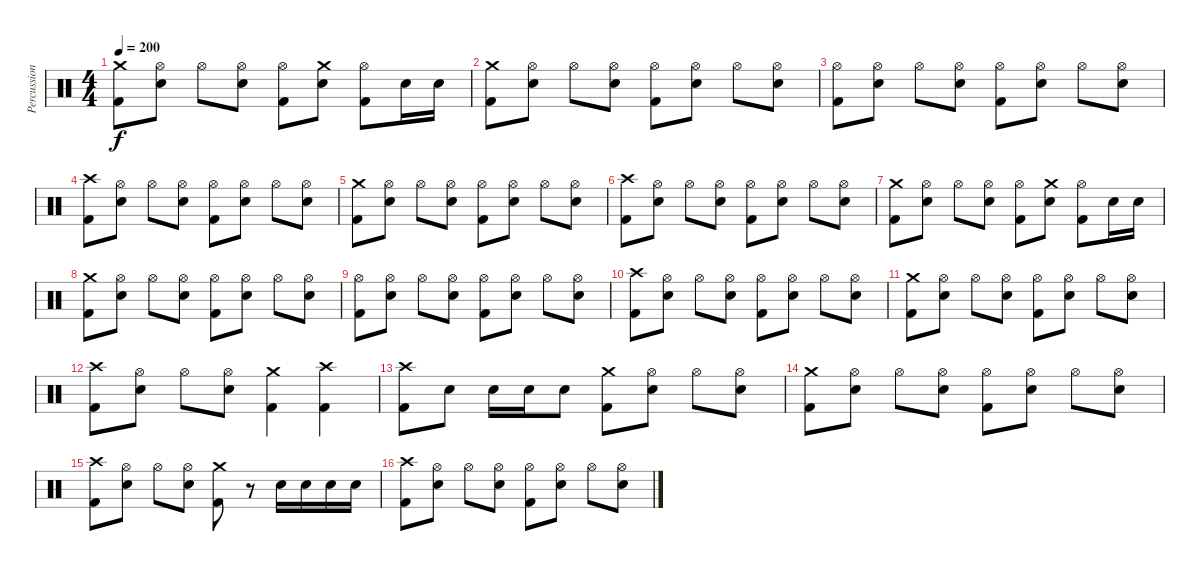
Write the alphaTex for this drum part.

\track ("Percussion" "Percussion") {instrument percussion}
\staff {score}
\articulation defaults
\ts (4 4)
\tempo 200
\clef neutral
\ks c
("Crash medium (hit)" "Kick (hit) 2").8{dy f} ("Hi-Hat (open)" "Electric Snare (hit)").8 "Hi-Hat (open)".8 ("Hi-Hat (open)" "Electric Snare (hit)").8 ("Hi-Hat (open)" "Kick (hit) 2").8 ("Crash medium (hit)" "Electric Snare (hit)").8 ("Hi-Hat (open)" "Kick (hit) 2").8 "Electric Snare (hit)".16 "Electric Snare (hit)".16 |
("Crash medium (hit)" "Kick (hit) 2").8 ("Hi-Hat (open)" "Electric Snare (hit)").8 "Hi-Hat (open)".8 ("Hi-Hat (open)" "Electric Snare (hit)").8 ("Hi-Hat (open)" "Kick (hit) 2").8 ("Hi-Hat (open)" "Electric Snare (hit)").8 "Hi-Hat (open)".8 ("Hi-Hat (open)" "Electric Snare (hit)").8 |
("Hi-Hat (open)" "Kick (hit) 2").8 ("Hi-Hat (open)" "Electric Snare (hit)").8 "Hi-Hat (open)".8 ("Hi-Hat (open)" "Electric Snare (hit)").8 ("Hi-Hat (open)" "Kick (hit) 2").8 ("Hi-Hat (open)" "Electric Snare (hit)").8 "Hi-Hat (open)".8 ("Hi-Hat (open)" "Electric Snare (hit)").8 |
("Crash high (hit)" "Kick (hit) 2").8 ("Hi-Hat (open)" "Electric Snare (hit)").8 "Hi-Hat (open)".8 ("Hi-Hat (open)" "Electric Snare (hit)").8 ("Hi-Hat (open)" "Kick (hit) 2").8 ("Hi-Hat (open)" "Electric Snare (hit)").8 "Hi-Hat (open)".8 ("Hi-Hat (open)" "Electric Snare (hit)").8 |
("Crash medium (hit)" "Kick (hit) 2").8 ("Hi-Hat (open)" "Electric Snare (hit)").8 "Hi-Hat (open)".8 ("Hi-Hat (open)" "Electric Snare (hit)").8 ("Hi-Hat (open)" "Kick (hit) 2").8 ("Hi-Hat (open)" "Electric Snare (hit)").8 "Hi-Hat (open)".8 ("Hi-Hat (open)" "Electric Snare (hit)").8 |
("Crash high (hit)" "Kick (hit) 2").8 ("Hi-Hat (open)" "Electric Snare (hit)").8 "Hi-Hat (open)".8 ("Hi-Hat (open)" "Electric Snare (hit)").8 ("Hi-Hat (open)" "Kick (hit) 2").8 ("Hi-Hat (open)" "Electric Snare (hit)").8 "Hi-Hat (open)".8 ("Hi-Hat (open)" "Electric Snare (hit)").8 |
("Crash medium (hit)" "Kick (hit) 2").8 ("Hi-Hat (open)" "Electric Snare (hit)").8 "Hi-Hat (open)".8 ("Hi-Hat (open)" "Electric Snare (hit)").8 ("Hi-Hat (open)" "Kick (hit) 2").8 ("Crash medium (hit)" "Electric Snare (hit)").8 ("Hi-Hat (open)" "Kick (hit) 2").8 "Electric Snare (hit)".16 "Electric Snare (hit)".16 |
("Crash medium (hit)" "Kick (hit) 2").8 ("Hi-Hat (open)" "Electric Snare (hit)").8 "Hi-Hat (open)".8 ("Hi-Hat (open)" "Electric Snare (hit)").8 ("Hi-Hat (open)" "Kick (hit) 2").8 ("Hi-Hat (open)" "Electric Snare (hit)").8 "Hi-Hat (open)".8 ("Hi-Hat (open)" "Electric Snare (hit)").8 |
("Hi-Hat (open)" "Kick (hit) 2").8 ("Hi-Hat (open)" "Electric Snare (hit)").8 "Hi-Hat (open)".8 ("Hi-Hat (open)" "Electric Snare (hit)").8 ("Hi-Hat (open)" "Kick (hit) 2").8 ("Hi-Hat (open)" "Electric Snare (hit)").8 "Hi-Hat (open)".8 ("Hi-Hat (open)" "Electric Snare (hit)").8 |
("Crash high (hit)" "Kick (hit) 2").8 ("Hi-Hat (open)" "Electric Snare (hit)").8 "Hi-Hat (open)".8 ("Hi-Hat (open)" "Electric Snare (hit)").8 ("Hi-Hat (open)" "Kick (hit) 2").8 ("Hi-Hat (open)" "Electric Snare (hit)").8 "Hi-Hat (open)".8 ("Hi-Hat (open)" "Electric Snare (hit)").8 |
("Crash medium (hit)" "Kick (hit) 2").8 ("Hi-Hat (open)" "Electric Snare (hit)").8 "Hi-Hat (open)".8 ("Hi-Hat (open)" "Electric Snare (hit)").8 ("Hi-Hat (open)" "Kick (hit) 2").8 ("Hi-Hat (open)" "Electric Snare (hit)").8 "Hi-Hat (open)".8 ("Hi-Hat (open)" "Electric Snare (hit)").8 |
("Crash high (hit)" "Kick (hit) 2").8 ("Hi-Hat (open)" "Electric Snare (hit)").8 "Hi-Hat (open)".8 ("Hi-Hat (open)" "Electric Snare (hit)").8 ("Crash medium (hit)" "Kick (hit) 2").4 ("Crash high (hit)" "Kick (hit) 2").4 |
("Crash high (hit)" "Kick (hit) 2").8 "Electric Snare (hit)".8 "Electric Snare (hit)".16 "Electric Snare (hit)".16 "Electric Snare (hit)".8 ("Crash medium (hit)" "Kick (hit) 2").8 ("Hi-Hat (open)" "Electric Snare (hit)").8 "Hi-Hat (open)".8 ("Hi-Hat (open)" "Electric Snare (hit)").8 |
("Crash medium (hit)" "Kick (hit) 2").8 ("Hi-Hat (open)" "Electric Snare (hit)").8 "Hi-Hat (open)".8 ("Hi-Hat (open)" "Electric Snare (hit)").8 ("Hi-Hat (open)" "Kick (hit) 2").8 ("Hi-Hat (open)" "Electric Snare (hit)").8 "Hi-Hat (open)".8 ("Hi-Hat (open)" "Electric Snare (hit)").8 |
("Crash high (hit)" "Kick (hit) 2").8 ("Hi-Hat (open)" "Electric Snare (hit)").8 "Hi-Hat (open)".8 ("Hi-Hat (open)" "Electric Snare (hit)").8 ("Crash medium (hit)" "Kick (hit) 2").8 r.8 "Electric Snare (hit)".16 "Electric Snare (hit)".16 "Electric Snare (hit)".16 "Electric Snare (hit)".16 |
("Crash high (hit)" "Kick (hit) 2").8 ("Hi-Hat (open)" "Electric Snare (hit)").8 "Hi-Hat (open)".8 ("Hi-Hat (open)" "Electric Snare (hit)").8 ("Hi-Hat (open)" "Kick (hit) 2").8 ("Hi-Hat (open)" "Electric Snare (hit)").8 "Hi-Hat (open)".8 ("Hi-Hat (open)" "Electric Snare (hit)").8
